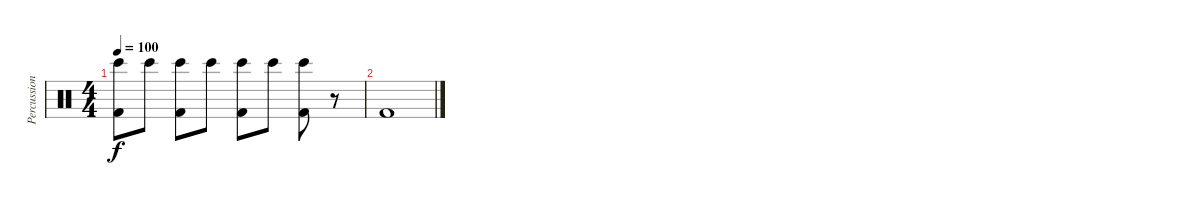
\track ("Percussion" "Percussion") {instrument percussion}
\staff {score}
\articulation defaults
\ts (4 4)
\tempo 100
\clef neutral
\ks c
("Bongo High (hit)" "Kick (hit) 2").8{dy f} "Bongo High (hit)".8 ("Bongo High (hit)" "Kick (hit) 2").8 "Bongo High (hit)".8 ("Bongo High (hit)" "Kick (hit) 2").8 "Bongo High (hit)".8 ("Bongo High (hit)" "Kick (hit) 2").8 r.8 |
"Kick (hit) 2".1
